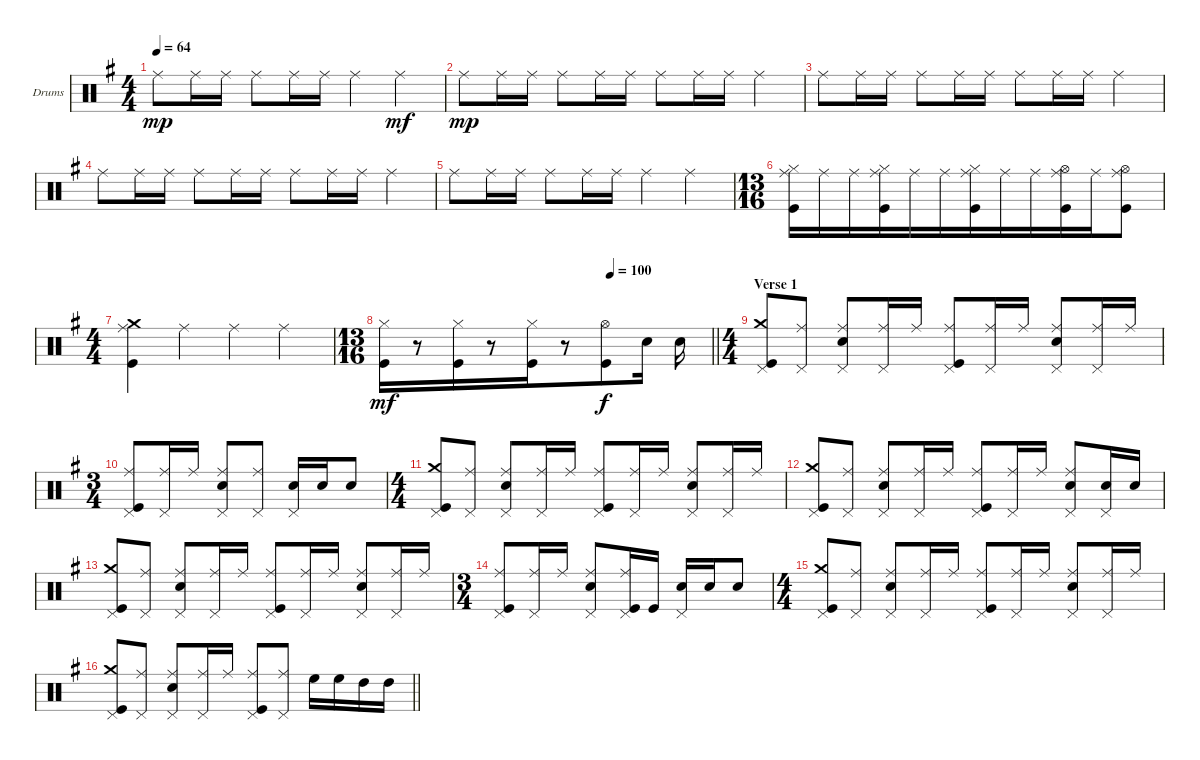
\bracketExtendMode groupsimilarinstruments
\firstSystemTrackNameOrientation horizontal
\otherSystemsTrackNameOrientation horizontal
\track ("Барабаны" "Drums") {instrument percussion}
\staff {score}
\articulation defaults
\ts (4 4)
\tempo 64
\clef neutral
\ks eminor "Ride (middle)".8{dy mp} "Ride (middle)".16 "Ride (middle)".16 "Ride (middle)".8 "Ride (middle)".16 "Ride (middle)".16 "Ride (middle)".4 "Ride (middle)".4{dy mf}
|
"Ride (middle)".8{dy mp} "Ride (middle)".16 "Ride (middle)".16 "Ride (middle)".8 "Ride (middle)".16 "Ride (middle)".16 "Ride (middle)".8 "Ride (middle)".16 "Ride (middle)".16 "Ride (middle)".4 |
"Ride (middle)".8 "Ride (middle)".16 "Ride (middle)".16 "Ride (middle)".8 "Ride (middle)".16 "Ride (middle)".16 "Ride (middle)".8 "Ride (middle)".16 "Ride (middle)".16 "Ride (middle)".4 |
"Ride (middle)".8 "Ride (middle)".16 "Ride (middle)".16 "Ride (middle)".8 "Ride (middle)".16 "Ride (middle)".16 "Ride (middle)".8 "Ride (middle)".16 "Ride (middle)".16 "Ride (middle)".4 |
"Ride (middle)".8 "Ride (middle)".16 "Ride (middle)".16 "Ride (middle)".8 "Ride (middle)".16 "Ride (middle)".16 "Ride (middle)".4 "Ride (middle)".4 |
\ts (13 16)
\beaming (8 6)
("Hi-Hat (closed)" "Ride (middle)" "Kick (hit)").16 "Ride (middle)".16 "Ride (middle)".16 ("Hi-Hat (closed)" "Ride (middle)" "Kick (hit)").16 "Ride (middle)".16 "Ride (middle)".16 ("Hi-Hat (closed)" "Ride (middle)" "Kick (hit)").16 "Ride (middle)".16 "Ride (middle)".16 ("Ride (middle)" "Hi-Hat (open)" "Kick (hit)").16 "Ride (middle)".16 ("Ride (middle)" "Hi-Hat (open)" "Kick (hit)").8 |
\ts (4 4)
\beaming (8 2 2 2 2)
("Crash medium (hit)" "Ride (middle)" "Kick (hit)").4 "Ride (middle)".4 "Ride (middle)".4 "Ride (middle)".4 |
\ts (13 16)
\beaming (8 6)
\tempo (100 0.692308)
\barLineRight lightlight
("Hi-Hat (closed)" "Kick (hit)").16{dy mf} r.8 ("Hi-Hat (closed)" "Kick (hit)").16 r.8 ("Hi-Hat (closed)" "Kick (hit)").16 r.8 ("Kick (hit)" "Hi-Hat (open)").8{dy f} "Snare (hit) 2".16 "Snare (hit) 2".16 |
\ts (4 4)
\beaming (8 2 2 2 2)
\section ("" "Verse 1")
("Crash medium (hit)" "Kick (hit)" "Pedal Hi-Hat (hit)").8 ("Pedal Hi-Hat (hit)" "Ride (middle)").8 ("Ride (middle)" "Snare (hit) 2" "Pedal Hi-Hat (hit)").8 ("Ride (middle)" "Pedal Hi-Hat (hit)").16 "Ride (middle)".16 ("Ride (middle)" "Kick (hit)" "Pedal Hi-Hat (hit)").8 ("Ride (middle)" "Pedal Hi-Hat (hit)").16 "Ride (middle)".16 ("Ride (middle)" "Snare (hit) 2" "Pedal Hi-Hat (hit)").8 ("Ride (middle)" "Pedal Hi-Hat (hit)").16 "Ride (middle)".16 |
\ts (3 4)
\beaming (8 2 2 2)
("Ride (middle)" "Kick (hit)" "Pedal Hi-Hat (hit)").8 ("Ride (middle)" "Pedal Hi-Hat (hit)").16 "Ride (middle)".16 ("Ride (middle)" "Snare (hit) 2" "Pedal Hi-Hat (hit)").8 ("Ride (middle)" "Pedal Hi-Hat (hit)").8 ("Snare (hit) 2" "Pedal Hi-Hat (hit)").16 "Snare (hit) 2".16 "Snare (hit) 2".8 |
\ts (4 4)
\beaming (8 2 2 2 2)
("Crash medium (hit)" "Kick (hit)" "Pedal Hi-Hat (hit)").8 ("Pedal Hi-Hat (hit)" "Ride (middle)").8 ("Ride (middle)" "Snare (hit) 2" "Pedal Hi-Hat (hit)").8 ("Ride (middle)" "Pedal Hi-Hat (hit)").16 "Ride (middle)".16 ("Ride (middle)" "Kick (hit)" "Pedal Hi-Hat (hit)").8 ("Ride (middle)" "Pedal Hi-Hat (hit)").16 "Ride (middle)".16 ("Ride (middle)" "Snare (hit) 2" "Pedal Hi-Hat (hit)").8 ("Ride (middle)" "Pedal Hi-Hat (hit)").16 "Ride (middle)".16 |
("Crash medium (hit)" "Kick (hit)" "Pedal Hi-Hat (hit)").8 ("Pedal Hi-Hat (hit)" "Ride (middle)").8 ("Ride (middle)" "Snare (hit) 2" "Pedal Hi-Hat (hit)").8 ("Ride (middle)" "Pedal Hi-Hat (hit)").16 "Ride (middle)".16 ("Ride (middle)" "Kick (hit)" "Pedal Hi-Hat (hit)").8 ("Ride (middle)" "Pedal Hi-Hat (hit)").16 "Ride (middle)".16 ("Ride (middle)" "Snare (hit) 2" "Pedal Hi-Hat (hit)").8 ("Snare (hit) 2" "Pedal Hi-Hat (hit)").16 "Snare (hit) 2".16 |
("Crash medium (hit)" "Kick (hit)" "Pedal Hi-Hat (hit)").8 ("Pedal Hi-Hat (hit)" "Ride (middle)").8 ("Ride (middle)" "Snare (hit) 2" "Pedal Hi-Hat (hit)").8 ("Ride (middle)" "Pedal Hi-Hat (hit)").16 "Ride (middle)".16 ("Ride (middle)" "Kick (hit)" "Pedal Hi-Hat (hit)").8 ("Ride (middle)" "Pedal Hi-Hat (hit)").16 "Ride (middle)".16 ("Ride (middle)" "Snare (hit) 2" "Pedal Hi-Hat (hit)").8 ("Ride (middle)" "Pedal Hi-Hat (hit)").16 "Ride (middle)".16 |
\ts (3 4)
\beaming (8 2 2 2 2)
("Ride (middle)" "Kick (hit)" "Pedal Hi-Hat (hit)").8 ("Ride (middle)" "Pedal Hi-Hat (hit)").16 "Ride (middle)".16 ("Ride (middle)" "Snare (hit) 2" "Pedal Hi-Hat (hit)").8 ("Ride (middle)" "Pedal Hi-Hat (hit)" "Kick (hit)").16 "Kick (hit)".16 ("Snare (hit) 2" "Pedal Hi-Hat (hit)").16 "Snare (hit) 2".16 "Snare (hit) 2".8 |
\ts (4 4)
\beaming (8 2 2 2 2)
("Crash medium (hit)" "Kick (hit)" "Pedal Hi-Hat (hit)").8 ("Pedal Hi-Hat (hit)" "Ride (middle)").8 ("Ride (middle)" "Snare (hit) 2" "Pedal Hi-Hat (hit)").8 ("Ride (middle)" "Pedal Hi-Hat (hit)").16 "Ride (middle)".16 ("Ride (middle)" "Kick (hit)" "Pedal Hi-Hat (hit)").8 ("Ride (middle)" "Pedal Hi-Hat (hit)").16 "Ride (middle)".16 ("Ride (middle)" "Snare (hit) 2" "Pedal Hi-Hat (hit)").8 ("Ride (middle)" "Pedal Hi-Hat (hit)").16 "Ride (middle)".16 |
\barLineRight lightlight
("Crash medium (hit)" "Kick (hit)" "Pedal Hi-Hat (hit)").8 ("Pedal Hi-Hat (hit)" "Ride (middle)").8 ("Ride (middle)" "Snare (hit) 2" "Pedal Hi-Hat (hit)").8 ("Ride (middle)" "Pedal Hi-Hat (hit)").16 "Ride (middle)".16 ("Ride (middle)" "Kick (hit)" "Pedal Hi-Hat (hit)").8 ("Ride (middle)" "Pedal Hi-Hat (hit)").8 "High Floor Tom (hit)".16 "High Floor Tom (hit)".16 "High Tom (hit)".16 "High Tom (hit)".16
